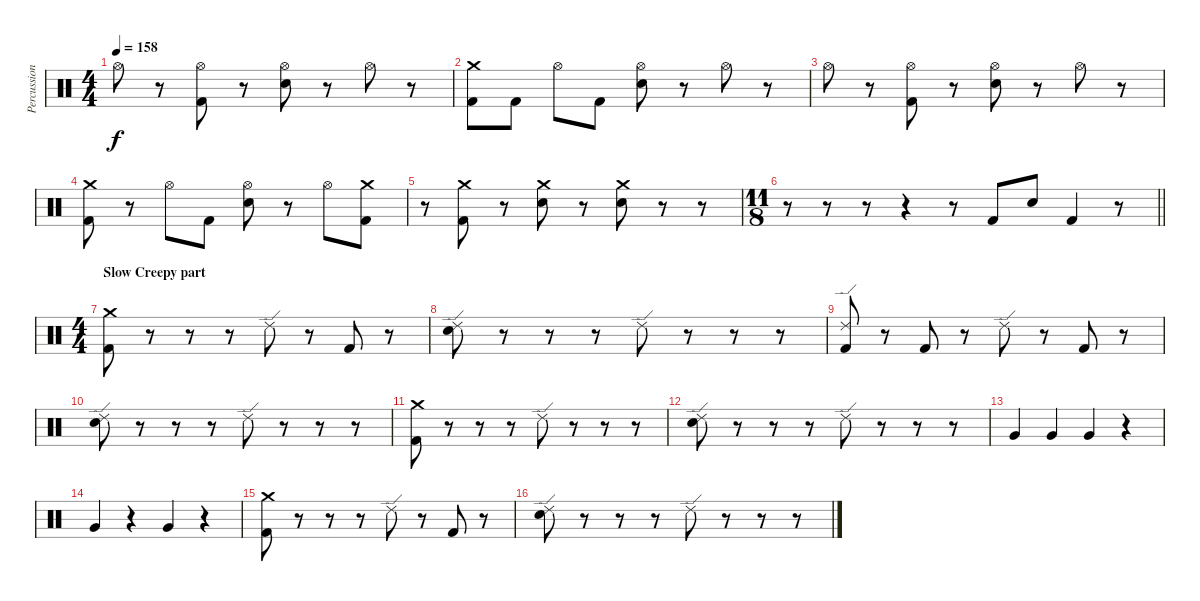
\track ("Percussion" "Percussion") {instrument percussion}
\staff {score}
\articulation defaults
\ts (4 4)
\tempo 158
\clef neutral
\ks c "Hi-Hat (open)".8{dy f}
r.8 ("Hi-Hat (open)" "Kick (hit) 2").8 r.8 ("Hi-Hat (open)" "Electric Snare (hit)").8 r.8 "Hi-Hat (open)".8 r.8 |
("Crash medium (hit)" "Kick (hit) 2").8 "Kick (hit) 2".8 "Hi-Hat (open)".8 "Kick (hit) 2".8 ("Hi-Hat (open)" "Electric Snare (hit)").8 r.8 "Hi-Hat (open)".8 r.8 |
"Hi-Hat (open)".8 r.8 ("Hi-Hat (open)" "Kick (hit) 2").8 r.8 ("Hi-Hat (open)" "Electric Snare (hit)").8 r.8 "Hi-Hat (open)".8 r.8 |
("Crash medium (hit)" "Kick (hit) 2").8 r.8 "Hi-Hat (open)".8 "Kick (hit) 2".8 ("Hi-Hat (open)" "Electric Snare (hit)").8 r.8 "Hi-Hat (open)".8 ("Crash medium (hit)" "Kick (hit) 2").8 |
r.8 ("Crash medium (hit)" "Kick (hit) 2").8 r.8 ("Crash medium (hit)" "Electric Snare (hit)").8 r.8 ("Crash medium (hit)" "Electric Snare (hit)").8 r.8 r.8 |
\ts (11 8)
\barLineRight lightlight
r.8 r.8 r.8 r.4 r.8 "Kick (hit) 2".8 "Electric Snare (hit)".8 "Kick (hit) 2".4 r.8 |
\ts (4 4)
\section ("" "Slow Creepy part")
("Kick (hit) 2" "Crash medium (hit)").8 r.8 r.8 r.8 "Ride (edge) 2".8 r.8 "Kick (hit) 2".8 r.8 |
("Ride (edge) 2" "Electric Snare (hit)").8 r.8 r.8 r.8 "Ride (edge) 2".8 r.8 r.8 r.8 |
("Kick (hit) 2" "Ride (edge) 2").8 r.8 "Kick (hit) 2".8 r.8 "Ride (edge) 2".8 r.8 "Kick (hit) 2".8 r.8 |
("Ride (edge) 2" "Electric Snare (hit)").8 r.8 r.8 r.8 "Ride (edge) 2".8 r.8 r.8 r.8 |
("Crash medium (hit)" "Kick (hit) 2").8 r.8 r.8 r.8 "Ride (edge) 2".8 r.8 r.8 r.8 |
("Ride (edge) 2" "Electric Snare (hit)").8 r.8 r.8 r.8 "Ride (edge) 2".8 r.8 r.8 r.8 |
"Very Low Tom (hit)".4 "Very Low Tom (hit)".4 "Very Low Tom (hit)".4 r.4 |
"Very Low Tom (hit)".4 r.4 "Very Low Tom (hit)".4 r.4 |
("Kick (hit) 2" "Crash medium (hit)").8 r.8 r.8 r.8 "Ride (edge) 2".8 r.8 "Kick (hit) 2".8 r.8 |
("Ride (edge) 2" "Electric Snare (hit)").8 r.8 r.8 r.8 "Ride (edge) 2".8 r.8 r.8 r.8
